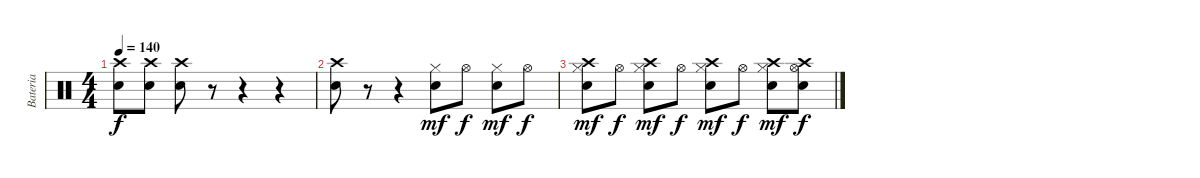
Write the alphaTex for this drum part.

\track ("Bateria" "Bateria") {instrument percussion}
\staff {score}
\articulation defaults
\ts (4 4)
\tempo 140
\clef neutral
\ks c
("Crash high (hit)" "Electric Snare (hit)").8{dy f} ("Crash high (hit)" "Electric Snare (hit)").8 ("Crash high (hit)" "Electric Snare (hit)").8 r.8 r.4 r.4 |
("Crash high (hit)" "Electric Snare (hit)").8 r.8 r.4 ("Hi-Hat (closed)" "Electric Snare (hit)").8{dy mf} "Hi-Hat (open)".8{dy f} ("Hi-Hat (closed)" "Electric Snare (hit)").8{dy mf} "Hi-Hat (open)".8{dy f} |
("Hi-Hat (closed)" "Crash high (hit)" "Electric Snare (hit)").8{dy mf} "Hi-Hat (open)".8{dy f} ("Hi-Hat (closed)" "Crash high (hit)" "Electric Snare (hit)").8{dy mf} "Hi-Hat (open)".8{dy f} ("Hi-Hat (closed)" "Crash high (hit)" "Electric Snare (hit)").8{dy mf} "Hi-Hat (open)".8{dy f} ("Hi-Hat (closed)" "Crash high (hit)" "Electric Snare (hit)").8{dy mf} ("Hi-Hat (open)" "Crash high (hit)" "Electric Snare (hit)").8{dy f}
